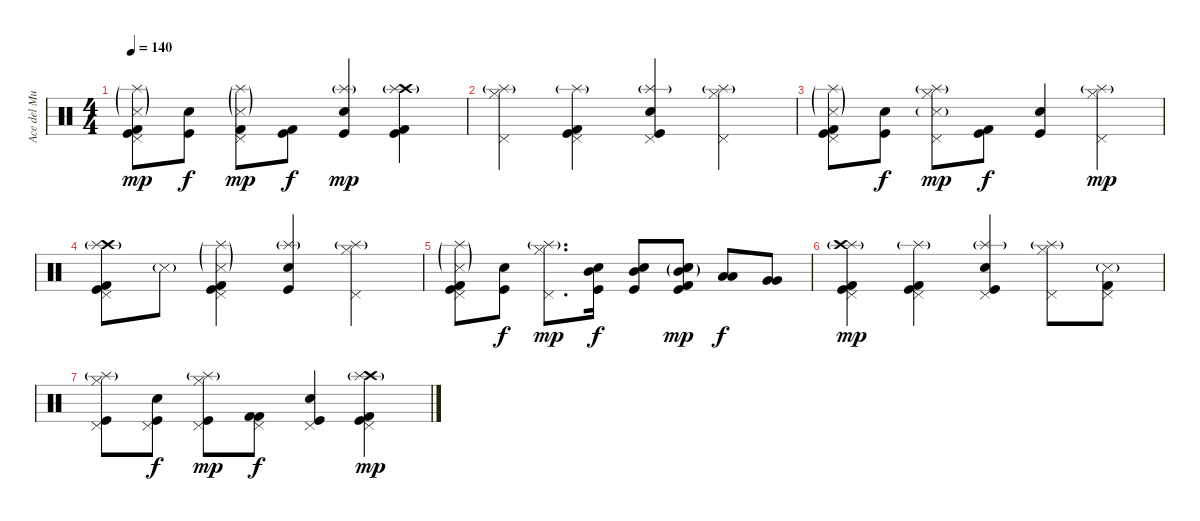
\track ("Ace del Mundo(Drums)" "Ace del Mu") {instrument percussion}
\staff {score}
\articulation defaults
\ts (4 4)
\tempo 140
\clef neutral
\ks c
("Pedal Hi-Hat (hit)" "Kick (hit) 2" "Kick (hit)" "Snare (side stick) 3"{g} "Splash (hit)"{g}).8{dy mp} ("Electric Snare (hit)" "Kick (hit)").8{dy f} ("Pedal Hi-Hat (hit)" "Kick (hit) 2" "Snare (side stick) 3"{g} "Splash (hit)"{g}).8{dy mp} ("Kick (hit) 2" "Kick (hit)").8{dy f} ("Electric Snare (hit)" "Kick (hit)" "Splash (hit)"{g}).4{dy mp} ("Crash high (hit)"{g} "Splash (hit)"{g} "Kick (hit) 2" "Kick (hit)").4 |
("Pedal Hi-Hat (hit)" "Hi-Hat (closed)" "Splash (hit)"{g}).4 ("Pedal Hi-Hat (hit)" "Kick (hit) 2" "Kick (hit)" "Splash (hit)"{g}).4 ("Pedal Hi-Hat (hit)" "Electric Snare (hit)" "Kick (hit)" "Splash (hit)"{g}).4 ("Pedal Hi-Hat (hit)" "Hi-Hat (closed)" "Splash (hit)"{g}).4 |
("Pedal Hi-Hat (hit)" "Kick (hit) 2" "Kick (hit)" "Snare (side stick) 3"{g} "Splash (hit)"{g}).8 ("Electric Snare (hit)" "Kick (hit)").8{dy f} ("Pedal Hi-Hat (hit)" "Hi-Hat (closed)" "Snare (side stick) 3"{g} "Splash (hit)"{g}).8{dy mp} ("Kick (hit) 2" "Kick (hit)").8{dy f} ("Electric Snare (hit)" "Kick (hit)").4 ("Pedal Hi-Hat (hit)" "Hi-Hat (closed)" "Splash (hit)"{g}).4{dy mp} |
("Pedal Hi-Hat (hit)" "Kick (hit) 2" "Kick (hit)" "Crash high (hit)"{g} "Splash (hit)"{g}).8 "Snare (side stick) 3"{g}.8 ("Pedal Hi-Hat (hit)" "Kick (hit) 2" "Kick (hit)" "Snare (side stick) 3"{g} "Splash (hit)"{g}).4 ("Electric Snare (hit)" "Kick (hit)" "Splash (hit)"{g}).4 ("Pedal Hi-Hat (hit)" "Hi-Hat (closed)" "Splash (hit)"{g}).4 |
("Pedal Hi-Hat (hit)" "Kick (hit) 2" "Kick (hit)" "Snare (side stick) 3"{g} "Splash (hit)"{g}).8 ("Electric Snare (hit)" "Kick (hit)").8{dy f} ("Pedal Hi-Hat (hit)" "Hi-Hat (closed)" "Splash (hit)"{g}).8{d dy mp} ("Electric Snare (hit)" "Kick (hit)" "Mid Tom (hit)").16{dy f} ("Electric Snare (hit)" "Kick (hit)" "Mid Tom (hit)").8 ("Electric Snare (hit)" "Kick (hit)" "Kick (hit) 2" "Snare (hit) 2"{g} "Mid Tom (hit)"{g}).8{dy mp} ("Low Tom (hit)" "Low Tom (hit)").8{dy f} ("Very Low Tom (hit)" "Very Low Tom (hit)").8 |
("Pedal Hi-Hat (hit)" "Kick (hit) 2" "Kick (hit)" "Splash (hit)"{g} "Crash high (hit)"{g}).4{dy mp} ("Pedal Hi-Hat (hit)" "Kick (hit) 2" "Kick (hit)" "Splash (hit)"{g}).4 ("Pedal Hi-Hat (hit)" "Electric Snare (hit)" "Kick (hit)" "Splash (hit)"{g}).4 ("Pedal Hi-Hat (hit)" "Hi-Hat (closed)" "Splash (hit)"{g}).8 ("Pedal Hi-Hat (hit)" "Kick (hit) 2" "Snare (side stick) 3"{g}).8 |
("Pedal Hi-Hat (hit)" "Hi-Hat (closed)" "Splash (hit)"{g} "Kick (hit)").8 ("Pedal Hi-Hat (hit)" "Electric Snare (hit)" "Kick (hit)").8{dy f} ("Pedal Hi-Hat (hit)" "Hi-Hat (closed)" "Splash (hit)"{g} "Kick (hit)").8{dy mp} ("Pedal Hi-Hat (hit)" "Kick (hit) 2" "Kick (hit) 2").8{dy f} ("Pedal Hi-Hat (hit)" "Electric Snare (hit)" "Kick (hit)").4 ("Pedal Hi-Hat (hit)" "Kick (hit) 2" "Kick (hit)" "Crash high (hit)"{g} "Splash (hit)"{g}).4{dy mp}
